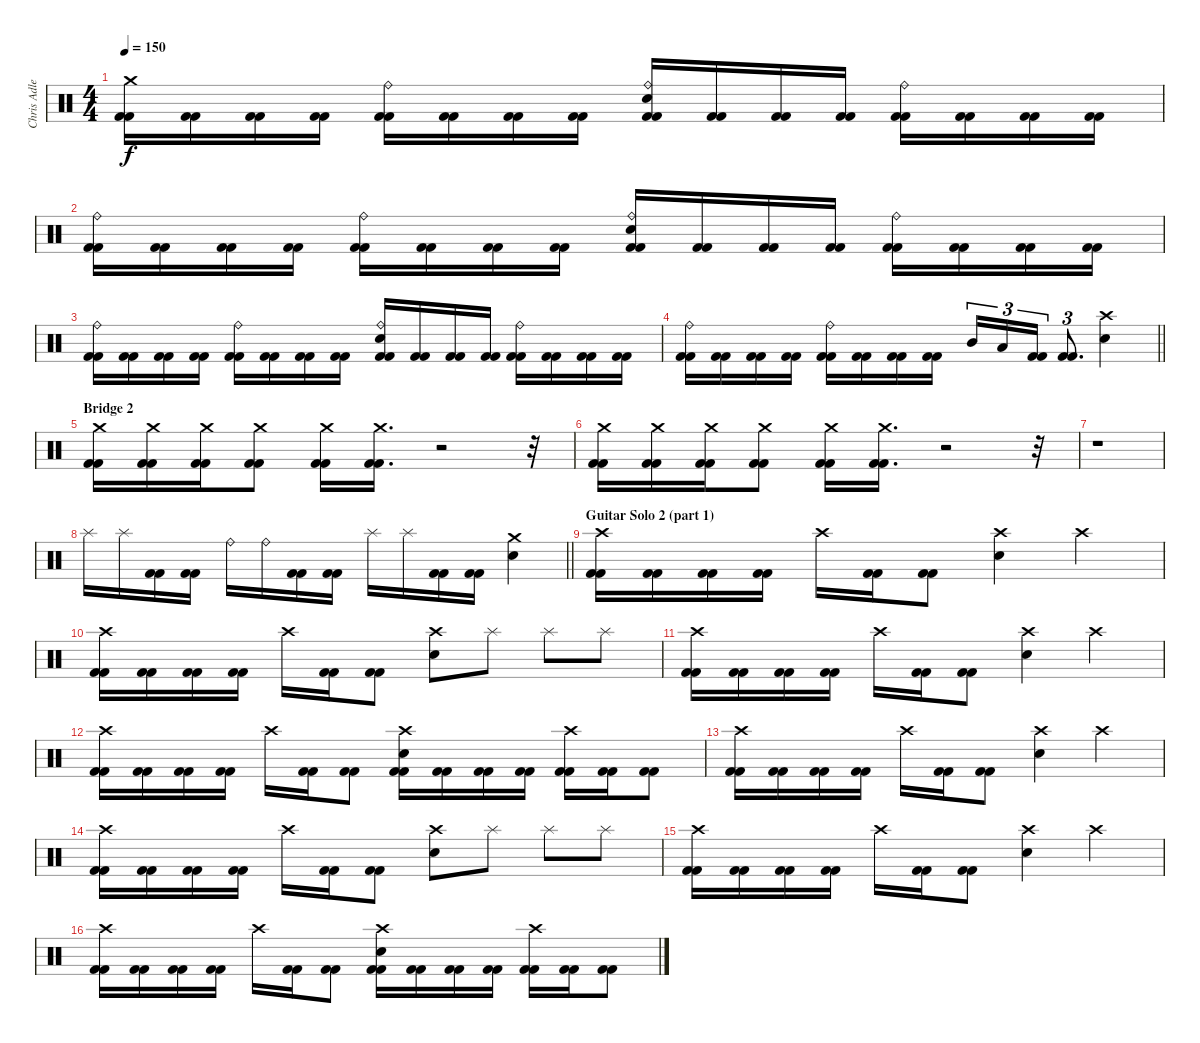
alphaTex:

\track ("Chris Adler" "Chris Adle") {instrument percussion}
\staff {score}
\articulation defaults
\ts (4 4)
\tempo 150
\clef neutral
\ks c
("Crash medium (hit)" "Kick (hit) 2" "Kick (hit) 2").16{dy f} ("Kick (hit) 2" "Kick (hit) 2").16 ("Kick (hit) 2" "Kick (hit) 2").16 ("Kick (hit) 2" "Kick (hit) 2").16 ("Ride (bell)" "Kick (hit) 2" "Kick (hit) 2").16 ("Kick (hit) 2" "Kick (hit) 2").16 ("Kick (hit) 2" "Kick (hit) 2").16 ("Kick (hit) 2" "Kick (hit) 2").16 ("Ride (bell)" "Electric Snare (hit)" "Kick (hit) 2" "Kick (hit) 2").16 ("Kick (hit) 2" "Kick (hit) 2").16 ("Kick (hit) 2" "Kick (hit) 2").16 ("Kick (hit) 2" "Kick (hit) 2").16 ("Ride (bell)" "Kick (hit) 2" "Kick (hit) 2").16 ("Kick (hit) 2" "Kick (hit) 2").16 ("Kick (hit) 2" "Kick (hit) 2").16 ("Kick (hit) 2" "Kick (hit) 2").16 |
("Ride (bell)" "Kick (hit) 2" "Kick (hit) 2").16 ("Kick (hit) 2" "Kick (hit) 2").16 ("Kick (hit) 2" "Kick (hit) 2").16 ("Kick (hit) 2" "Kick (hit) 2").16 ("Ride (bell)" "Kick (hit) 2" "Kick (hit) 2").16 ("Kick (hit) 2" "Kick (hit) 2").16 ("Kick (hit) 2" "Kick (hit) 2").16 ("Kick (hit) 2" "Kick (hit) 2").16 ("Ride (bell)" "Electric Snare (hit)" "Kick (hit) 2" "Kick (hit) 2").16 ("Kick (hit) 2" "Kick (hit) 2").16 ("Kick (hit) 2" "Kick (hit) 2").16 ("Kick (hit) 2" "Kick (hit) 2").16 ("Ride (bell)" "Kick (hit) 2" "Kick (hit) 2").16 ("Kick (hit) 2" "Kick (hit) 2").16 ("Kick (hit) 2" "Kick (hit) 2").16 ("Kick (hit) 2" "Kick (hit) 2").16 |
("Ride (bell)" "Kick (hit) 2" "Kick (hit) 2").16 ("Kick (hit) 2" "Kick (hit) 2").16 ("Kick (hit) 2" "Kick (hit) 2").16 ("Kick (hit) 2" "Kick (hit) 2").16 ("Ride (bell)" "Kick (hit) 2" "Kick (hit) 2").16 ("Kick (hit) 2" "Kick (hit) 2").16 ("Kick (hit) 2" "Kick (hit) 2").16 ("Kick (hit) 2" "Kick (hit) 2").16 ("Ride (bell)" "Electric Snare (hit)" "Kick (hit) 2" "Kick (hit) 2").16 ("Kick (hit) 2" "Kick (hit) 2").16 ("Kick (hit) 2" "Kick (hit) 2").16 ("Kick (hit) 2" "Kick (hit) 2").16 ("Ride (bell)" "Kick (hit) 2" "Kick (hit) 2").16 ("Kick (hit) 2" "Kick (hit) 2").16 ("Kick (hit) 2" "Kick (hit) 2").16 ("Kick (hit) 2" "Kick (hit) 2").16 |
\barLineRight lightlight
("Ride (bell)" "Kick (hit) 2" "Kick (hit) 2").16 ("Kick (hit) 2" "Kick (hit) 2").16 ("Kick (hit) 2" "Kick (hit) 2").16 ("Kick (hit) 2" "Kick (hit) 2").16 ("Ride (bell)" "Kick (hit) 2" "Kick (hit) 2").16 ("Kick (hit) 2" "Kick (hit) 2").16 ("Kick (hit) 2" "Kick (hit) 2").16 ("Kick (hit) 2" "Kick (hit) 2").16 "Mid Tom (hit)".16{tu (3 2)} "Low Tom (hit)".16{tu (3 2)} ("Kick (hit) 2" "Kick (hit) 2").16{tu (3 2)} ("Kick (hit) 2" "Kick (hit) 2").8{d tu (3 2)} ("Crash high (hit)" "Electric Snare (hit)").4 |
\section ("" "Bridge 2")
("Crash medium (hit)" "Kick (hit) 2" "Kick (hit) 2").16 ("Crash medium (hit)" "Kick (hit) 2" "Kick (hit) 2").16 ("Crash medium (hit)" "Kick (hit) 2" "Kick (hit) 2").16 ("Crash medium (hit)" "Kick (hit) 2" "Kick (hit) 2").8 ("Crash medium (hit)" "Kick (hit) 2" "Kick (hit) 2").16 ("Crash medium (hit)" "Kick (hit) 2" "Kick (hit) 2").16{d} r.2{volume 0} r.32 |
("Crash medium (hit)" "Kick (hit) 2" "Kick (hit) 2").16{volume 13} ("Crash medium (hit)" "Kick (hit) 2" "Kick (hit) 2").16 ("Crash medium (hit)" "Kick (hit) 2" "Kick (hit) 2").16 ("Crash medium (hit)" "Kick (hit) 2" "Kick (hit) 2").8 ("Crash medium (hit)" "Kick (hit) 2" "Kick (hit) 2").16 ("Crash medium (hit)" "Kick (hit) 2" "Kick (hit) 2").16{d} r.2{volume 0} r.32 |
r.1 |
\barLineRight lightlight "Splash (hit)".16{volume 13} "Splash (hit)".16
("Kick (hit) 2" "Kick (hit) 2").16 ("Kick (hit) 2" "Kick (hit) 2").16 "Ride (bell)".16 "Ride (bell)".16 ("Kick (hit) 2" "Kick (hit) 2").16 ("Kick (hit) 2" "Kick (hit) 2").16 "Splash (hit)".16 "Splash (hit)".16 ("Kick (hit) 2" "Kick (hit) 2").16 ("Kick (hit) 2" "Kick (hit) 2").16 ("Crash medium (hit)" "Electric Snare (hit)").4 |
\section ("" "Guitar Solo 2 (part 1)")
("Crash high (hit)" "Kick (hit) 2" "Kick (hit) 2").16 ("Kick (hit) 2" "Kick (hit) 2").16 ("Kick (hit) 2" "Kick (hit) 2").16 ("Kick (hit) 2" "Kick (hit) 2").16 "Crash high (hit)".16 ("Kick (hit) 2" "Kick (hit) 2").16 ("Kick (hit) 2" "Kick (hit) 2").8 ("Crash high (hit)" "Electric Snare (hit)").4 "Crash high (hit)".4 |
("Crash high (hit)" "Kick (hit) 2" "Kick (hit) 2").16 ("Kick (hit) 2" "Kick (hit) 2").16 ("Kick (hit) 2" "Kick (hit) 2").16 ("Kick (hit) 2" "Kick (hit) 2").16 "Crash high (hit)".16 ("Kick (hit) 2" "Kick (hit) 2").16 ("Kick (hit) 2" "Kick (hit) 2").8 ("Crash high (hit)" "Electric Snare (hit)").8 "Splash (hit)".8 "Splash (hit)".8 "Splash (hit)".8 |
("Crash high (hit)" "Kick (hit) 2" "Kick (hit) 2").16 ("Kick (hit) 2" "Kick (hit) 2").16 ("Kick (hit) 2" "Kick (hit) 2").16 ("Kick (hit) 2" "Kick (hit) 2").16 "Crash high (hit)".16 ("Kick (hit) 2" "Kick (hit) 2").16 ("Kick (hit) 2" "Kick (hit) 2").8 ("Crash high (hit)" "Electric Snare (hit)").4 "Crash high (hit)".4 |
("Crash high (hit)" "Kick (hit) 2" "Kick (hit) 2").16 ("Kick (hit) 2" "Kick (hit) 2").16 ("Kick (hit) 2" "Kick (hit) 2").16 ("Kick (hit) 2" "Kick (hit) 2").16 "Crash high (hit)".16 ("Kick (hit) 2" "Kick (hit) 2").16 ("Kick (hit) 2" "Kick (hit) 2").8 ("Crash high (hit)" "Electric Snare (hit)" "Kick (hit) 2" "Kick (hit) 2").16 ("Kick (hit) 2" "Kick (hit) 2").16 ("Kick (hit) 2" "Kick (hit) 2").16 ("Kick (hit) 2" "Kick (hit) 2").16 ("Crash high (hit)" "Kick (hit) 2" "Kick (hit) 2").16 ("Kick (hit) 2" "Kick (hit) 2").16 ("Kick (hit) 2" "Kick (hit) 2").8 |
("Crash high (hit)" "Kick (hit) 2" "Kick (hit) 2").16 ("Kick (hit) 2" "Kick (hit) 2").16 ("Kick (hit) 2" "Kick (hit) 2").16 ("Kick (hit) 2" "Kick (hit) 2").16 "Crash high (hit)".16 ("Kick (hit) 2" "Kick (hit) 2").16 ("Kick (hit) 2" "Kick (hit) 2").8 ("Crash high (hit)" "Electric Snare (hit)").4 "Crash high (hit)".4 |
("Crash high (hit)" "Kick (hit) 2" "Kick (hit) 2").16 ("Kick (hit) 2" "Kick (hit) 2").16 ("Kick (hit) 2" "Kick (hit) 2").16 ("Kick (hit) 2" "Kick (hit) 2").16 "Crash high (hit)".16 ("Kick (hit) 2" "Kick (hit) 2").16 ("Kick (hit) 2" "Kick (hit) 2").8 ("Crash high (hit)" "Electric Snare (hit)").8 "Splash (hit)".8 "Splash (hit)".8 "Splash (hit)".8 |
("Crash high (hit)" "Kick (hit) 2" "Kick (hit) 2").16 ("Kick (hit) 2" "Kick (hit) 2").16 ("Kick (hit) 2" "Kick (hit) 2").16 ("Kick (hit) 2" "Kick (hit) 2").16 "Crash high (hit)".16 ("Kick (hit) 2" "Kick (hit) 2").16 ("Kick (hit) 2" "Kick (hit) 2").8 ("Crash high (hit)" "Electric Snare (hit)").4 "Crash high (hit)".4 |
("Crash high (hit)" "Kick (hit) 2" "Kick (hit) 2").16 ("Kick (hit) 2" "Kick (hit) 2").16 ("Kick (hit) 2" "Kick (hit) 2").16 ("Kick (hit) 2" "Kick (hit) 2").16 "Crash high (hit)".16 ("Kick (hit) 2" "Kick (hit) 2").16 ("Kick (hit) 2" "Kick (hit) 2").8 ("Crash high (hit)" "Electric Snare (hit)" "Kick (hit) 2" "Kick (hit) 2").16 ("Kick (hit) 2" "Kick (hit) 2").16 ("Kick (hit) 2" "Kick (hit) 2").16 ("Kick (hit) 2" "Kick (hit) 2").16 ("Crash high (hit)" "Kick (hit) 2" "Kick (hit) 2").16 ("Kick (hit) 2" "Kick (hit) 2").16 ("Kick (hit) 2" "Kick (hit) 2").8
